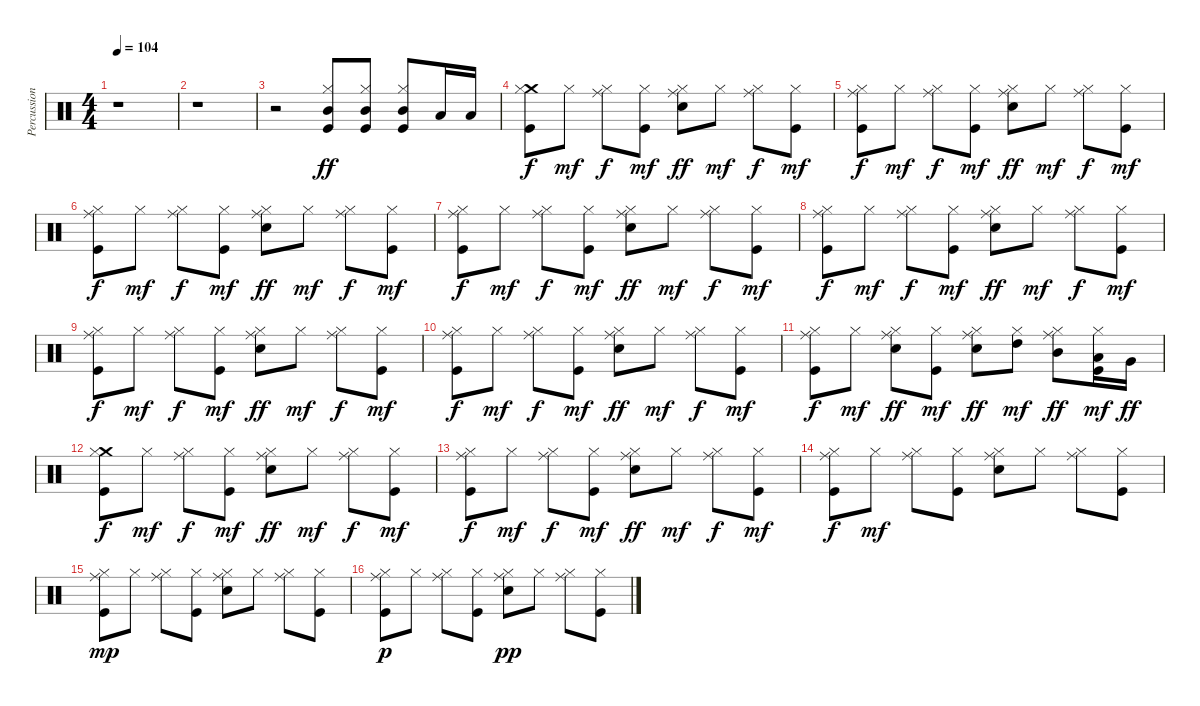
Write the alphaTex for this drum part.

\track ("Percussioni" "Percussion") {instrument percussion}
\staff {score}
\articulation defaults
\ts (4 4)
\tempo 104
\clef neutral
\ks c
r.1{dy f} |
r.1 |
r.2 ("Mid Tom (hit)" "Hi-Hat (closed)" "Kick (hit)").8{dy ff} ("Mid Tom (hit)" "Hi-Hat (closed)" "Kick (hit)").8 ("Mid Tom (hit)" "Hi-Hat (closed)" "Kick (hit)").8 "Low Tom (hit)".16 "Low Tom (hit)".16 |
("Crash medium (hit)" "Hi-Hat (closed)" "Kick (hit)").8{dy f} "Hi-Hat (closed)".8{dy mf} ("Ride (middle)" "Hi-Hat (closed)").8{dy f} ("Hi-Hat (closed)" "Kick (hit)").8{dy mf} ("Ride (middle)" "Hi-Hat (closed)" "Snare (hit) 2").8{dy ff} "Hi-Hat (closed)".8{dy mf} ("Ride (middle)" "Hi-Hat (closed)").8{dy f} ("Hi-Hat (closed)" "Kick (hit)").8{dy mf} |
("Ride (middle)" "Hi-Hat (closed)" "Kick (hit)").8{dy f} "Hi-Hat (closed)".8{dy mf} ("Ride (middle)" "Hi-Hat (closed)").8{dy f} ("Hi-Hat (closed)" "Kick (hit)").8{dy mf} ("Ride (middle)" "Hi-Hat (closed)" "Snare (hit) 2").8{dy ff} "Hi-Hat (closed)".8{dy mf} ("Ride (middle)" "Hi-Hat (closed)").8{dy f} ("Hi-Hat (closed)" "Kick (hit)").8{dy mf} |
("Ride (middle)" "Hi-Hat (closed)" "Kick (hit)").8{dy f} "Hi-Hat (closed)".8{dy mf} ("Ride (middle)" "Hi-Hat (closed)").8{dy f} ("Hi-Hat (closed)" "Kick (hit)").8{dy mf} ("Ride (middle)" "Hi-Hat (closed)" "Snare (hit) 2").8{dy ff} "Hi-Hat (closed)".8{dy mf} ("Ride (middle)" "Hi-Hat (closed)").8{dy f} ("Hi-Hat (closed)" "Kick (hit)").8{dy mf} |
("Ride (middle)" "Hi-Hat (closed)" "Kick (hit)").8{dy f} "Hi-Hat (closed)".8{dy mf} ("Ride (middle)" "Hi-Hat (closed)").8{dy f} ("Hi-Hat (closed)" "Kick (hit)").8{dy mf} ("Ride (middle)" "Hi-Hat (closed)" "Snare (hit) 2").8{dy ff} "Hi-Hat (closed)".8{dy mf} ("Ride (middle)" "Hi-Hat (closed)").8{dy f} ("Hi-Hat (closed)" "Kick (hit)").8{dy mf} |
("Ride (middle)" "Hi-Hat (closed)" "Kick (hit)").8{dy f} "Hi-Hat (closed)".8{dy mf} ("Ride (middle)" "Hi-Hat (closed)").8{dy f} ("Hi-Hat (closed)" "Kick (hit)").8{dy mf} ("Ride (middle)" "Hi-Hat (closed)" "Snare (hit) 2").8{dy ff} "Hi-Hat (closed)".8{dy mf} ("Ride (middle)" "Hi-Hat (closed)").8{dy f} ("Hi-Hat (closed)" "Kick (hit)").8{dy mf} |
("Ride (middle)" "Hi-Hat (closed)" "Kick (hit)").8{dy f} "Hi-Hat (closed)".8{dy mf} ("Ride (middle)" "Hi-Hat (closed)").8{dy f} ("Hi-Hat (closed)" "Kick (hit)").8{dy mf} ("Ride (middle)" "Hi-Hat (closed)" "Snare (hit) 2").8{dy ff} "Hi-Hat (closed)".8{dy mf} ("Ride (middle)" "Hi-Hat (closed)").8{dy f} ("Hi-Hat (closed)" "Kick (hit)").8{dy mf} |
("Ride (middle)" "Hi-Hat (closed)" "Kick (hit)").8{dy f} "Hi-Hat (closed)".8{dy mf} ("Ride (middle)" "Hi-Hat (closed)").8{dy f} ("Hi-Hat (closed)" "Kick (hit)").8{dy mf} ("Ride (middle)" "Hi-Hat (closed)" "Snare (hit) 2").8{dy ff} "Hi-Hat (closed)".8{dy mf} ("Ride (middle)" "Hi-Hat (closed)").8{dy f} ("Hi-Hat (closed)" "Kick (hit)").8{dy mf} |
("Ride (middle)" "Hi-Hat (closed)" "Kick (hit)").8{dy f} "Hi-Hat (closed)".8{dy mf} ("Ride (middle)" "Hi-Hat (closed)" "Snare (hit) 2").8{dy ff} ("Hi-Hat (closed)" "Kick (hit)").8{dy mf} ("Ride (middle)" "Hi-Hat (closed)" "Snare (hit) 2").8{dy ff} ("High Tom (hit)" "Hi-Hat (closed)").8{dy mf} ("Ride (middle)" "Mid Tom (hit)" "Hi-Hat (closed)").8{dy ff} ("Low Tom (hit)" "Hi-Hat (closed)" "Kick (hit)").16{dy mf} "Very Low Tom (hit)".16{dy ff} |
("Crash medium (hit)" "Hi-Hat (closed)" "Kick (hit)").8{dy f} "Hi-Hat (closed)".8{dy mf} ("Ride (middle)" "Hi-Hat (closed)").8{dy f} ("Hi-Hat (closed)" "Kick (hit)").8{dy mf} ("Ride (middle)" "Hi-Hat (closed)" "Snare (hit) 2").8{dy ff} "Hi-Hat (closed)".8{dy mf} ("Ride (middle)" "Hi-Hat (closed)").8{dy f} ("Hi-Hat (closed)" "Kick (hit)").8{dy mf} |
("Ride (middle)" "Hi-Hat (closed)" "Kick (hit)").8{dy f} "Hi-Hat (closed)".8{dy mf} ("Ride (middle)" "Hi-Hat (closed)").8{dy f} ("Hi-Hat (closed)" "Kick (hit)").8{dy mf} ("Ride (middle)" "Hi-Hat (closed)" "Snare (hit) 2").8{dy ff} "Hi-Hat (closed)".8{dy mf} ("Ride (middle)" "Hi-Hat (closed)").8{dy f} ("Hi-Hat (closed)" "Kick (hit)").8{dy mf} |
("Ride (middle)" "Hi-Hat (closed)" "Kick (hit)").8{dy f} "Hi-Hat (closed)".8{dy mf} ("Ride (middle)" "Hi-Hat (closed)").8 ("Hi-Hat (closed)" "Kick (hit)").8 ("Ride (middle)" "Hi-Hat (closed)" "Snare (hit) 2").8 "Hi-Hat (closed)".8 ("Ride (middle)" "Hi-Hat (closed)").8 ("Hi-Hat (closed)" "Kick (hit)").8 |
("Ride (middle)" "Hi-Hat (closed)" "Kick (hit)").8{dy mp} "Hi-Hat (closed)".8 ("Ride (middle)" "Hi-Hat (closed)").8 ("Hi-Hat (closed)" "Kick (hit)").8 ("Ride (middle)" "Hi-Hat (closed)" "Snare (hit) 2").8 "Hi-Hat (closed)".8 ("Ride (middle)" "Hi-Hat (closed)").8 ("Hi-Hat (closed)" "Kick (hit)").8 |
("Ride (middle)" "Hi-Hat (closed)" "Kick (hit)").8{dy p} "Hi-Hat (closed)".8 ("Ride (middle)" "Hi-Hat (closed)").8 ("Hi-Hat (closed)" "Kick (hit)").8 ("Ride (middle)" "Hi-Hat (closed)" "Snare (hit) 2").8{dy pp} "Hi-Hat (closed)".8 ("Ride (middle)" "Hi-Hat (closed)").8 ("Hi-Hat (closed)" "Kick (hit)").8
